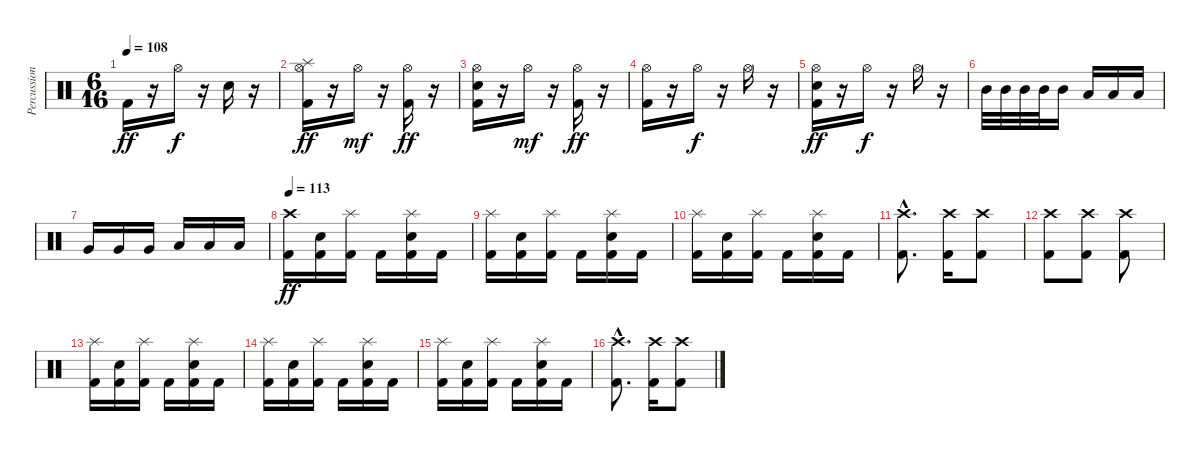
\track ("Percussion" "Percussion") {instrument percussion}
\staff {score}
\articulation defaults
\ts (6 16)
\tempo 108
\clef neutral
\ks c "Kick (hit) 2".16{dy ff}
r.16 "Hi-Hat (open)".16{dy f} r.16 "Electric Snare (hit)".16 r.16 |
("Splash (hit)" "Hi-Hat (open)" "Kick (hit) 2").16{dy ff} r.16 "Hi-Hat (open)".16{dy mf} r.16 ("Hi-Hat (open)" "Kick (hit) 2").16{dy ff} r.16 |
("Hi-Hat (open)" "Electric Snare (hit)" "Kick (hit) 2").16 r.16 "Hi-Hat (open)".16{dy mf} r.16 ("Hi-Hat (open)" "Kick (hit) 2").16{dy ff} r.16 |
("Hi-Hat (open)" "Kick (hit) 2").16 r.16 "Hi-Hat (open)".16{dy f} r.16 "Hi-Hat (open)".16 r.16 |
("Hi-Hat (open)" "Electric Snare (hit)" "Kick (hit) 2").16{dy ff} r.16 "Hi-Hat (open)".16{dy f} r.16 "Hi-Hat (open)".16 r.16 |
"Mid Tom (hit)".32 "Mid Tom (hit)".32 "Mid Tom (hit)".32 "Mid Tom (hit)".32 "Mid Tom (hit)".16 "Low Tom (hit)".16 "Low Tom (hit)".16 "Low Tom (hit)".16 |
"Very Low Tom (hit)".16 "Very Low Tom (hit)".16 "Very Low Tom (hit)".16 "Low Floor Tom (hit)".16 "Low Floor Tom (hit)".16 "Low Floor Tom (hit)".16 |
\tempo 113
("Crash high (hit)" "Kick (hit) 2").16{dy ff} ("Electric Snare (hit)" "Kick (hit) 2").16 ("Splash (hit)" "Kick (hit) 2").16 "Kick (hit) 2".16 ("Splash (hit)" "Electric Snare (hit)" "Kick (hit) 2").16 "Kick (hit) 2".16 |
("Splash (hit)" "Kick (hit) 2").16 ("Electric Snare (hit)" "Kick (hit) 2").16 ("Splash (hit)" "Kick (hit) 2").16 "Kick (hit) 2".16 ("Splash (hit)" "Electric Snare (hit)" "Kick (hit) 2").16 "Kick (hit) 2".16 |
("Splash (hit)" "Kick (hit) 2").16 ("Electric Snare (hit)" "Kick (hit) 2").16 ("Splash (hit)" "Kick (hit) 2").16 "Kick (hit) 2".16 ("Splash (hit)" "Electric Snare (hit)" "Kick (hit) 2").16 "Kick (hit) 2".16 |
("Crash high (hit)"{hac} "Kick (hit) 2"{hac}).8{d} ("Crash high (hit)" "Kick (hit) 2").16 ("Crash high (hit)" "Kick (hit) 2").8 |
("Crash high (hit)" "Kick (hit) 2").8 ("Crash high (hit)" "Kick (hit) 2").8 ("Crash high (hit)" "Kick (hit) 2").8 |
("Splash (hit)" "Kick (hit) 2").16 ("Electric Snare (hit)" "Kick (hit) 2").16 ("Splash (hit)" "Kick (hit) 2").16 "Kick (hit) 2".16 ("Splash (hit)" "Electric Snare (hit)" "Kick (hit) 2").16 "Kick (hit) 2".16 |
("Splash (hit)" "Kick (hit) 2").16 ("Electric Snare (hit)" "Kick (hit) 2").16 ("Splash (hit)" "Kick (hit) 2").16 "Kick (hit) 2".16 ("Splash (hit)" "Electric Snare (hit)" "Kick (hit) 2").16 "Kick (hit) 2".16 |
("Splash (hit)" "Kick (hit) 2").16 ("Electric Snare (hit)" "Kick (hit) 2").16 ("Splash (hit)" "Kick (hit) 2").16 "Kick (hit) 2".16 ("Splash (hit)" "Electric Snare (hit)" "Kick (hit) 2").16 "Kick (hit) 2".16 |
("Crash high (hit)"{hac} "Kick (hit) 2"{hac}).8{d} ("Crash high (hit)" "Kick (hit) 2").16 ("Crash high (hit)" "Kick (hit) 2").8
